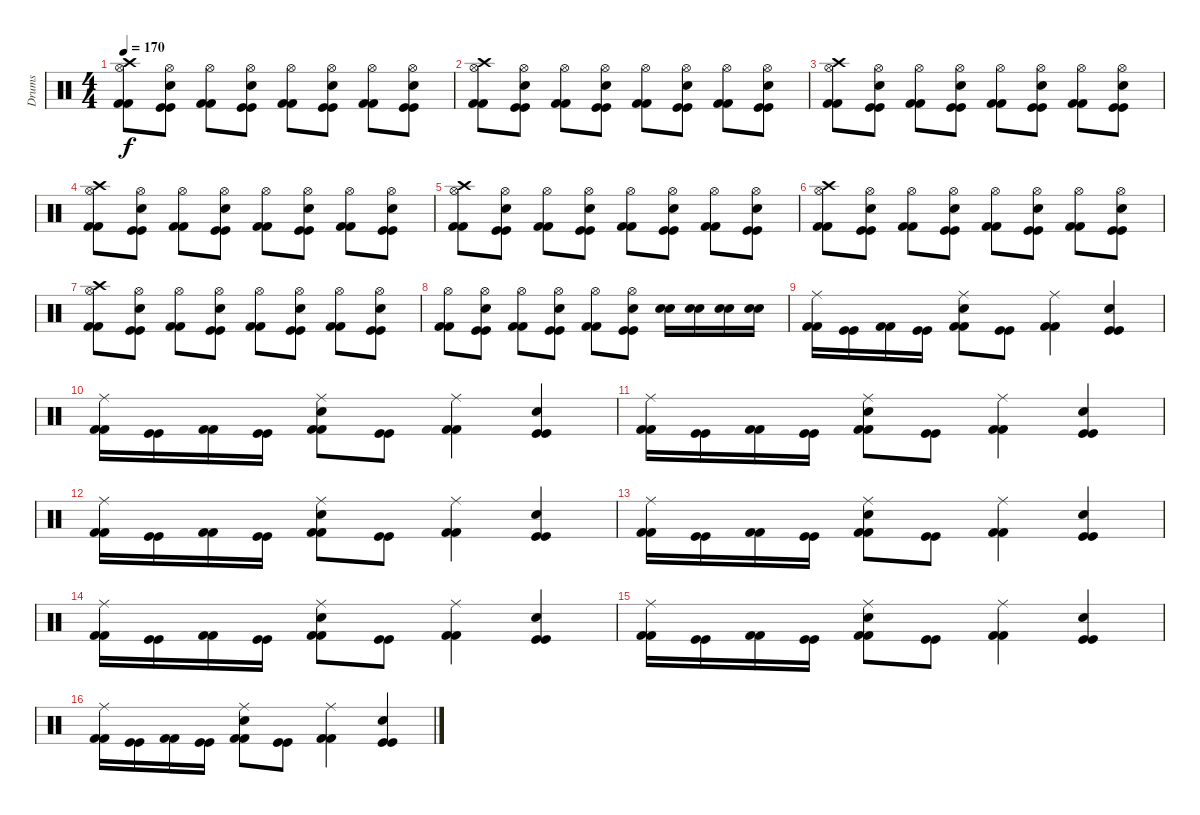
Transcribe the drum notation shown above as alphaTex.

\track ("Drums" "Drums") {instrument percussion}
\staff {score}
\articulation defaults
\ts (4 4)
\tempo 170
\clef neutral
\ks c
("Hi-Hat (open)" "Crash high (hit)" "Kick (hit) 2" "Kick (hit) 2").8{dy f} ("Hi-Hat (open)" "Electric Snare (hit)" "Kick (hit)" "Kick (hit)").8 ("Hi-Hat (open)" "Kick (hit) 2" "Kick (hit) 2").8 ("Hi-Hat (open)" "Electric Snare (hit)" "Kick (hit)" "Kick (hit)").8 ("Hi-Hat (open)" "Kick (hit) 2" "Kick (hit) 2").8 ("Hi-Hat (open)" "Electric Snare (hit)" "Kick (hit)" "Kick (hit)").8 ("Hi-Hat (open)" "Kick (hit) 2" "Kick (hit) 2").8 ("Hi-Hat (open)" "Electric Snare (hit)" "Kick (hit)" "Kick (hit)").8 |
("Hi-Hat (open)" "Crash high (hit)" "Kick (hit) 2" "Kick (hit) 2").8 ("Hi-Hat (open)" "Electric Snare (hit)" "Kick (hit)" "Kick (hit)").8 ("Hi-Hat (open)" "Kick (hit) 2" "Kick (hit) 2").8 ("Hi-Hat (open)" "Electric Snare (hit)" "Kick (hit)" "Kick (hit)").8 ("Hi-Hat (open)" "Kick (hit) 2" "Kick (hit) 2").8 ("Hi-Hat (open)" "Electric Snare (hit)" "Kick (hit)" "Kick (hit)").8 ("Hi-Hat (open)" "Kick (hit) 2" "Kick (hit) 2").8 ("Hi-Hat (open)" "Electric Snare (hit)" "Kick (hit)" "Kick (hit)").8 |
("Hi-Hat (open)" "Crash high (hit)" "Kick (hit) 2" "Kick (hit) 2").8 ("Hi-Hat (open)" "Electric Snare (hit)" "Kick (hit)" "Kick (hit)").8 ("Hi-Hat (open)" "Kick (hit) 2" "Kick (hit) 2").8 ("Hi-Hat (open)" "Electric Snare (hit)" "Kick (hit)" "Kick (hit)").8 ("Hi-Hat (open)" "Kick (hit) 2" "Kick (hit) 2").8 ("Hi-Hat (open)" "Electric Snare (hit)" "Kick (hit)" "Kick (hit)").8 ("Hi-Hat (open)" "Kick (hit) 2" "Kick (hit) 2").8 ("Hi-Hat (open)" "Electric Snare (hit)" "Kick (hit)" "Kick (hit)").8 |
("Hi-Hat (open)" "Crash high (hit)" "Kick (hit) 2" "Kick (hit) 2").8 ("Hi-Hat (open)" "Electric Snare (hit)" "Kick (hit)" "Kick (hit)").8 ("Hi-Hat (open)" "Kick (hit) 2" "Kick (hit) 2").8 ("Hi-Hat (open)" "Electric Snare (hit)" "Kick (hit)" "Kick (hit)").8 ("Hi-Hat (open)" "Kick (hit) 2" "Kick (hit) 2").8 ("Hi-Hat (open)" "Electric Snare (hit)" "Kick (hit)" "Kick (hit)").8 ("Hi-Hat (open)" "Kick (hit) 2" "Kick (hit) 2").8 ("Hi-Hat (open)" "Electric Snare (hit)" "Kick (hit)" "Kick (hit)").8 |
("Hi-Hat (open)" "Crash high (hit)" "Kick (hit) 2" "Kick (hit) 2").8 ("Hi-Hat (open)" "Electric Snare (hit)" "Kick (hit)" "Kick (hit)").8 ("Hi-Hat (open)" "Kick (hit) 2" "Kick (hit) 2").8 ("Hi-Hat (open)" "Electric Snare (hit)" "Kick (hit)" "Kick (hit)").8 ("Hi-Hat (open)" "Kick (hit) 2" "Kick (hit) 2").8 ("Hi-Hat (open)" "Electric Snare (hit)" "Kick (hit)" "Kick (hit)").8 ("Hi-Hat (open)" "Kick (hit) 2" "Kick (hit) 2").8 ("Hi-Hat (open)" "Electric Snare (hit)" "Kick (hit)" "Kick (hit)").8 |
("Hi-Hat (open)" "Crash high (hit)" "Kick (hit) 2" "Kick (hit) 2").8 ("Hi-Hat (open)" "Electric Snare (hit)" "Kick (hit)" "Kick (hit)").8 ("Hi-Hat (open)" "Kick (hit) 2" "Kick (hit) 2").8 ("Hi-Hat (open)" "Electric Snare (hit)" "Kick (hit)" "Kick (hit)").8 ("Hi-Hat (open)" "Kick (hit) 2" "Kick (hit) 2").8 ("Hi-Hat (open)" "Electric Snare (hit)" "Kick (hit)" "Kick (hit)").8 ("Hi-Hat (open)" "Kick (hit) 2" "Kick (hit) 2").8 ("Hi-Hat (open)" "Electric Snare (hit)" "Kick (hit)" "Kick (hit)").8 |
("Hi-Hat (open)" "Crash high (hit)" "Kick (hit) 2" "Kick (hit) 2").8 ("Hi-Hat (open)" "Electric Snare (hit)" "Kick (hit)" "Kick (hit)").8 ("Hi-Hat (open)" "Kick (hit) 2" "Kick (hit) 2").8 ("Hi-Hat (open)" "Electric Snare (hit)" "Kick (hit)" "Kick (hit)").8 ("Hi-Hat (open)" "Kick (hit) 2" "Kick (hit) 2").8 ("Hi-Hat (open)" "Electric Snare (hit)" "Kick (hit)" "Kick (hit)").8 ("Hi-Hat (open)" "Kick (hit) 2" "Kick (hit) 2").8 ("Hi-Hat (open)" "Electric Snare (hit)" "Kick (hit)" "Kick (hit)").8 |
("Hi-Hat (open)" "Kick (hit) 2" "Kick (hit) 2").8 ("Hi-Hat (open)" "Electric Snare (hit)" "Kick (hit)" "Kick (hit)").8 ("Hi-Hat (open)" "Kick (hit) 2" "Kick (hit) 2").8 ("Hi-Hat (open)" "Electric Snare (hit)" "Kick (hit)" "Kick (hit)").8 ("Hi-Hat (open)" "Kick (hit) 2" "Kick (hit) 2").8 ("Hi-Hat (open)" "Electric Snare (hit)" "Kick (hit)" "Kick (hit)").8 ("Electric Snare (hit)" "Electric Snare (hit)").16 ("Electric Snare (hit)" "Electric Snare (hit)").16 ("Electric Snare (hit)" "Electric Snare (hit)").16 ("Electric Snare (hit)" "Electric Snare (hit)").16 |
("Ride (middle)" "Kick (hit) 2" "Kick (hit) 2").16 ("Kick (hit)" "Kick (hit)").16 ("Kick (hit) 2" "Kick (hit) 2").16 ("Kick (hit)" "Kick (hit)").16 ("Ride (middle)" "Electric Snare (hit)" "Kick (hit) 2" "Kick (hit) 2").8 ("Kick (hit)" "Kick (hit)").8 ("Ride (middle)" "Kick (hit) 2" "Kick (hit) 2").4 ("Electric Snare (hit)" "Kick (hit)" "Kick (hit)").4 |
("Ride (middle)" "Kick (hit) 2" "Kick (hit) 2").16 ("Kick (hit)" "Kick (hit)").16 ("Kick (hit) 2" "Kick (hit) 2").16 ("Kick (hit)" "Kick (hit)").16 ("Ride (middle)" "Electric Snare (hit)" "Kick (hit) 2" "Kick (hit) 2").8 ("Kick (hit)" "Kick (hit)").8 ("Ride (middle)" "Kick (hit) 2" "Kick (hit) 2").4 ("Electric Snare (hit)" "Kick (hit)" "Kick (hit)").4 |
("Ride (middle)" "Kick (hit) 2" "Kick (hit) 2").16 ("Kick (hit)" "Kick (hit)").16 ("Kick (hit) 2" "Kick (hit) 2").16 ("Kick (hit)" "Kick (hit)").16 ("Ride (middle)" "Electric Snare (hit)" "Kick (hit) 2" "Kick (hit) 2").8 ("Kick (hit)" "Kick (hit)").8 ("Ride (middle)" "Kick (hit) 2" "Kick (hit) 2").4 ("Electric Snare (hit)" "Kick (hit)" "Kick (hit)").4 |
("Ride (middle)" "Kick (hit) 2" "Kick (hit) 2").16 ("Kick (hit)" "Kick (hit)").16 ("Kick (hit) 2" "Kick (hit) 2").16 ("Kick (hit)" "Kick (hit)").16 ("Ride (middle)" "Electric Snare (hit)" "Kick (hit) 2" "Kick (hit) 2").8 ("Kick (hit)" "Kick (hit)").8 ("Ride (middle)" "Kick (hit) 2" "Kick (hit) 2").4 ("Electric Snare (hit)" "Kick (hit)" "Kick (hit)").4 |
("Ride (middle)" "Kick (hit) 2" "Kick (hit) 2").16 ("Kick (hit)" "Kick (hit)").16 ("Kick (hit) 2" "Kick (hit) 2").16 ("Kick (hit)" "Kick (hit)").16 ("Ride (middle)" "Electric Snare (hit)" "Kick (hit) 2" "Kick (hit) 2").8 ("Kick (hit)" "Kick (hit)").8 ("Ride (middle)" "Kick (hit) 2" "Kick (hit) 2").4 ("Electric Snare (hit)" "Kick (hit)" "Kick (hit)").4 |
("Ride (middle)" "Kick (hit) 2" "Kick (hit) 2").16 ("Kick (hit)" "Kick (hit)").16 ("Kick (hit) 2" "Kick (hit) 2").16 ("Kick (hit)" "Kick (hit)").16 ("Ride (middle)" "Electric Snare (hit)" "Kick (hit) 2" "Kick (hit) 2").8 ("Kick (hit)" "Kick (hit)").8 ("Ride (middle)" "Kick (hit) 2" "Kick (hit) 2").4 ("Electric Snare (hit)" "Kick (hit)" "Kick (hit)").4 |
("Ride (middle)" "Kick (hit) 2" "Kick (hit) 2").16 ("Kick (hit)" "Kick (hit)").16 ("Kick (hit) 2" "Kick (hit) 2").16 ("Kick (hit)" "Kick (hit)").16 ("Ride (middle)" "Electric Snare (hit)" "Kick (hit) 2" "Kick (hit) 2").8 ("Kick (hit)" "Kick (hit)").8 ("Ride (middle)" "Kick (hit) 2" "Kick (hit) 2").4 ("Electric Snare (hit)" "Kick (hit)" "Kick (hit)").4 |
("Ride (middle)" "Kick (hit) 2" "Kick (hit) 2").16 ("Kick (hit)" "Kick (hit)").16 ("Kick (hit) 2" "Kick (hit) 2").16 ("Kick (hit)" "Kick (hit)").16 ("Ride (middle)" "Electric Snare (hit)" "Kick (hit) 2" "Kick (hit) 2").8 ("Kick (hit)" "Kick (hit)").8 ("Ride (middle)" "Kick (hit) 2" "Kick (hit) 2").4 ("Electric Snare (hit)" "Kick (hit)" "Kick (hit)").4
